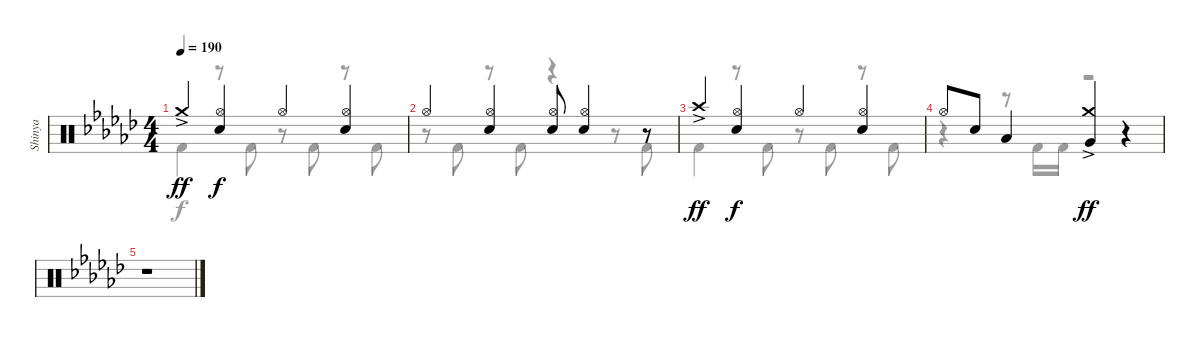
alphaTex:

\track ("Shinya" "Shinya") {instrument percussion}
\staff {score}
\articulation defaults
\voice
\ts (4 4)
\tempo 190
\clef neutral
\ks ebminor "Crash medium (hit)"{ac}.4{dy ff}
("Hi-Hat (open)" "Snare (hit) 2").4{dy f} "Hi-Hat (open)".4 ("Hi-Hat (open)" "Snare (hit) 2").4 |
"Hi-Hat (open)".4 ("Hi-Hat (open)" "Snare (hit) 2").4 ("Hi-Hat (open)" "Snare (hit) 2").8 ("Hi-Hat (open)" "Snare (hit) 2").4 r.8 |
"Crash high (hit)"{ac}.4{dy ff} ("Hi-Hat (open)" "Snare (hit) 2").4{dy f} "Hi-Hat (open)".4 ("Hi-Hat (open)" "Snare (hit) 2").4 |
"Hi-Hat (open)".8 "Snare (hit) 2".8 "Low Tom (hit)".4 ("Crash medium (hit)"{ac} "Very Low Tom (hit)").4{dy ff} r.4 |
r.1
\voice
\clef neutral
\ottava regular
\simile none
\ks ebminor "Kick (hit) 2".4{dy f}
r.8 "Kick (hit) 2".8 r.8 "Kick (hit) 2".8 r.8 "Kick (hit) 2".8 |
r.8 "Kick (hit) 2".8 r.8 "Kick (hit) 2".8 r.4 r.8 "Kick (hit) 2".8 |
"Kick (hit) 2".4 r.8 "Kick (hit) 2".8 r.8 "Kick (hit) 2".8 r.8 "Kick (hit) 2".8 |
r.4 r.8 "Kick (hit) 2".16 "Kick (hit) 2".16 r.2 |
r.1
